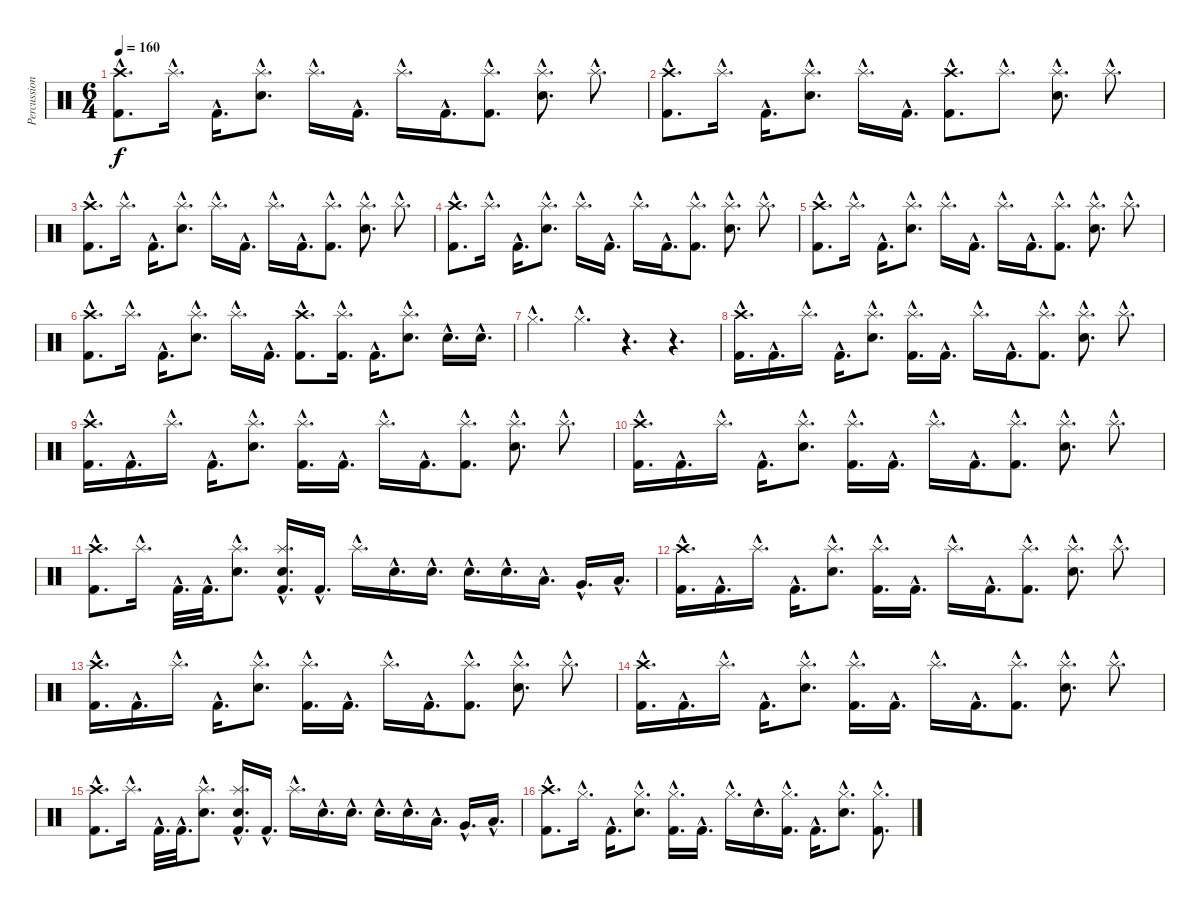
\track ("Percussion" "Percussion") {instrument percussion}
\staff {score}
\articulation defaults
\ts (6 4)
\tempo 160
\clef neutral
\ks c
("Crash high (hit)"{hac} "Kick (hit) 2"{hac}).8{d dy f} "Splash (hit)"{hac}.16{d} "Kick (hit) 2"{hac}.16{d} ("Splash (hit)"{hac} "Electric Snare (hit)"{hac}).8{d} "Splash (hit)"{hac}.16{d} "Kick (hit) 2"{hac}.16{d} "Splash (hit)"{hac}.16{d} "Kick (hit) 2"{hac}.16{d} ("Splash (hit)"{hac} "Kick (hit) 2"{hac}).8{d} ("Splash (hit)"{hac} "Electric Snare (hit)"{hac}).8{d} "Splash (hit)"{hac}.8{d} |
("Crash high (hit)"{hac} "Kick (hit) 2"{hac}).8{d} "Splash (hit)"{hac}.16{d} "Kick (hit) 2"{hac}.16{d} ("Splash (hit)"{hac} "Electric Snare (hit)"{hac}).8{d} "Splash (hit)"{hac}.16{d} "Kick (hit) 2"{hac}.16{d} ("Crash high (hit)"{hac} "Kick (hit) 2"{hac}).8{d} "Splash (hit)"{hac}.8{d} ("Splash (hit)"{hac} "Electric Snare (hit)"{hac}).8{d} "Splash (hit)"{hac}.8{d} |
("Crash high (hit)"{hac} "Kick (hit) 2"{hac}).8{d} "Splash (hit)"{hac}.16{d} "Kick (hit) 2"{hac}.16{d} ("Splash (hit)"{hac} "Electric Snare (hit)"{hac}).8{d} "Splash (hit)"{hac}.16{d} "Kick (hit) 2"{hac}.16{d} "Splash (hit)"{hac}.16{d} "Kick (hit) 2"{hac}.16{d} ("Splash (hit)"{hac} "Kick (hit) 2"{hac}).8{d} ("Splash (hit)"{hac} "Electric Snare (hit)"{hac}).8{d} "Splash (hit)"{hac}.8{d} |
("Crash high (hit)"{hac} "Kick (hit) 2"{hac}).8{d} "Splash (hit)"{hac}.16{d} "Kick (hit) 2"{hac}.16{d} ("Splash (hit)"{hac} "Electric Snare (hit)"{hac}).8{d} "Splash (hit)"{hac}.16{d} "Kick (hit) 2"{hac}.16{d} "Splash (hit)"{hac}.16{d} "Kick (hit) 2"{hac}.16{d} ("Splash (hit)"{hac} "Kick (hit) 2"{hac}).8{d} ("Splash (hit)"{hac} "Electric Snare (hit)"{hac}).8{d} "Splash (hit)"{hac}.8{d} |
("Crash high (hit)"{hac} "Kick (hit) 2"{hac}).8{d} "Splash (hit)"{hac}.16{d} "Kick (hit) 2"{hac}.16{d} ("Splash (hit)"{hac} "Electric Snare (hit)"{hac}).8{d} "Splash (hit)"{hac}.16{d} "Kick (hit) 2"{hac}.16{d} "Splash (hit)"{hac}.16{d} "Kick (hit) 2"{hac}.16{d} ("Splash (hit)"{hac} "Kick (hit) 2"{hac}).8{d} ("Splash (hit)"{hac} "Electric Snare (hit)"{hac}).8{d} "Splash (hit)"{hac}.8{d} |
("Crash high (hit)"{hac} "Kick (hit) 2"{hac}).8{d} "Splash (hit)"{hac}.16{d} "Kick (hit) 2"{hac}.16{d} ("Splash (hit)"{hac} "Electric Snare (hit)"{hac}).8{d} "Splash (hit)"{hac}.16{d} "Kick (hit) 2"{hac}.16{d} ("Crash high (hit)"{hac} "Kick (hit) 2"{hac}).8{d} ("Splash (hit)"{hac} "Kick (hit) 2"{hac}).16{d} "Kick (hit) 2"{hac}.16{d} ("Splash (hit)"{hac} "Electric Snare (hit)"{hac}).8{d} "Electric Snare (hit)"{hac}.16{d} "Electric Snare (hit)"{hac}.16{d} |
"Hi-Hat (closed)"{hac}.4{d} "Hi-Hat (closed)"{hac}.4{d} r.4{d} r.4{d} |
("Crash high (hit)"{hac} "Kick (hit) 2"{hac}).16{d} "Kick (hit) 2"{hac}.16{d} "Splash (hit)"{hac}.16{d} "Kick (hit) 2"{hac}.16{d} ("Splash (hit)"{hac} "Electric Snare (hit)"{hac}).8{d} ("Splash (hit)"{hac} "Kick (hit) 2"{hac}).16{d} "Kick (hit) 2"{hac}.16{d} "Splash (hit)"{hac}.16{d} "Kick (hit) 2"{hac}.16{d} ("Splash (hit)"{hac} "Kick (hit) 2"{hac}).8{d} ("Splash (hit)"{hac} "Electric Snare (hit)"{hac}).8{d} "Splash (hit)"{hac}.8{d} |
("Crash high (hit)"{hac} "Kick (hit) 2"{hac}).16{d} "Kick (hit) 2"{hac}.16{d} "Splash (hit)"{hac}.16{d} "Kick (hit) 2"{hac}.16{d} ("Splash (hit)"{hac} "Electric Snare (hit)"{hac}).8{d} ("Splash (hit)"{hac} "Kick (hit) 2"{hac}).16{d} "Kick (hit) 2"{hac}.16{d} "Splash (hit)"{hac}.16{d} "Kick (hit) 2"{hac}.16{d} ("Splash (hit)"{hac} "Kick (hit) 2"{hac}).8{d} ("Splash (hit)"{hac} "Electric Snare (hit)"{hac}).8{d} "Splash (hit)"{hac}.8{d} |
("Crash high (hit)"{hac} "Kick (hit) 2"{hac}).16{d} "Kick (hit) 2"{hac}.16{d} "Splash (hit)"{hac}.16{d} "Kick (hit) 2"{hac}.16{d} ("Splash (hit)"{hac} "Electric Snare (hit)"{hac}).8{d} ("Splash (hit)"{hac} "Kick (hit) 2"{hac}).16{d} "Kick (hit) 2"{hac}.16{d} "Splash (hit)"{hac}.16{d} "Kick (hit) 2"{hac}.16{d} ("Splash (hit)"{hac} "Kick (hit) 2"{hac}).8{d} ("Splash (hit)"{hac} "Electric Snare (hit)"{hac}).8{d} "Splash (hit)"{hac}.8{d} |
("Crash high (hit)"{hac} "Kick (hit) 2"{hac}).8{d} "Splash (hit)"{hac}.16{d} "Kick (hit) 2"{hac}.32{d} "Kick (hit) 2"{hac}.32{d} ("Splash (hit)"{hac} "Electric Snare (hit)"{hac}).8{d} ("Splash (hit)"{hac} "Electric Snare (hit)"{hac} "Kick (hit) 2"{hac}).16{d} "Kick (hit) 2"{hac}.16{d} "Splash (hit)"{hac}.16{d} "Electric Snare (hit)"{hac}.16{d} "Electric Snare (hit)"{hac}.16{d} "Electric Snare (hit)"{hac}.16{d} "Electric Snare (hit)"{hac}.16{d} "Low Tom (hit)"{hac}.16{d} "Very Low Tom (hit)"{hac}.16{d} "Low Floor Tom (hit)"{hac}.16{d} |
("Crash high (hit)"{hac} "Kick (hit) 2"{hac}).16{d} "Kick (hit) 2"{hac}.16{d} "Splash (hit)"{hac}.16{d} "Kick (hit) 2"{hac}.16{d} ("Splash (hit)"{hac} "Electric Snare (hit)"{hac}).8{d} ("Splash (hit)"{hac} "Kick (hit) 2"{hac}).16{d} "Kick (hit) 2"{hac}.16{d} "Splash (hit)"{hac}.16{d} "Kick (hit) 2"{hac}.16{d} ("Splash (hit)"{hac} "Kick (hit) 2"{hac}).8{d} ("Splash (hit)"{hac} "Electric Snare (hit)"{hac}).8{d} "Splash (hit)"{hac}.8{d} |
("Crash high (hit)"{hac} "Kick (hit) 2"{hac}).16{d} "Kick (hit) 2"{hac}.16{d} "Splash (hit)"{hac}.16{d} "Kick (hit) 2"{hac}.16{d} ("Splash (hit)"{hac} "Electric Snare (hit)"{hac}).8{d} ("Splash (hit)"{hac} "Kick (hit) 2"{hac}).16{d} "Kick (hit) 2"{hac}.16{d} "Splash (hit)"{hac}.16{d} "Kick (hit) 2"{hac}.16{d} ("Splash (hit)"{hac} "Kick (hit) 2"{hac}).8{d} ("Splash (hit)"{hac} "Electric Snare (hit)"{hac}).8{d} "Splash (hit)"{hac}.8{d} |
("Crash high (hit)"{hac} "Kick (hit) 2"{hac}).16{d} "Kick (hit) 2"{hac}.16{d} "Splash (hit)"{hac}.16{d} "Kick (hit) 2"{hac}.16{d} ("Splash (hit)"{hac} "Electric Snare (hit)"{hac}).8{d} ("Splash (hit)"{hac} "Kick (hit) 2"{hac}).16{d} "Kick (hit) 2"{hac}.16{d} "Splash (hit)"{hac}.16{d} "Kick (hit) 2"{hac}.16{d} ("Splash (hit)"{hac} "Kick (hit) 2"{hac}).8{d} ("Splash (hit)"{hac} "Electric Snare (hit)"{hac}).8{d} "Splash (hit)"{hac}.8{d} |
("Crash high (hit)"{hac} "Kick (hit) 2"{hac}).8{d} "Splash (hit)"{hac}.16{d} "Kick (hit) 2"{hac}.32{d} "Kick (hit) 2"{hac}.32{d} ("Splash (hit)"{hac} "Electric Snare (hit)"{hac}).8{d} ("Splash (hit)"{hac} "Electric Snare (hit)"{hac} "Kick (hit) 2"{hac}).16{d} "Kick (hit) 2"{hac}.16{d} "Splash (hit)"{hac}.16{d} "Electric Snare (hit)"{hac}.16{d} "Electric Snare (hit)"{hac}.16{d} "Electric Snare (hit)"{hac}.16{d} "Electric Snare (hit)"{hac}.16{d} "Low Tom (hit)"{hac}.16{d} "Very Low Tom (hit)"{hac}.16{d} "Low Floor Tom (hit)"{hac}.16{d} |
("Crash high (hit)"{hac} "Kick (hit) 2"{hac}).8{d} "Hi-Hat (closed)"{hac}.16{d} "Kick (hit) 2"{hac}.16{d} ("Hi-Hat (closed)"{hac} "Electric Snare (hit)"{hac}).8{d} ("Hi-Hat (closed)"{hac} "Kick (hit) 2"{hac}).16{d} "Kick (hit) 2"{hac}.16{d} "Hi-Hat (closed)"{hac}.16{d} "Electric Snare (hit)"{hac}.16{d} ("Hi-Hat (closed)"{hac} "Kick (hit) 2"{hac}).16{d} "Kick (hit) 2"{hac}.16{d} ("Hi-Hat (closed)"{hac} "Electric Snare (hit)"{hac}).8{d} ("Hi-Hat (closed)"{hac} "Kick (hit) 2"{hac}).8{d}
